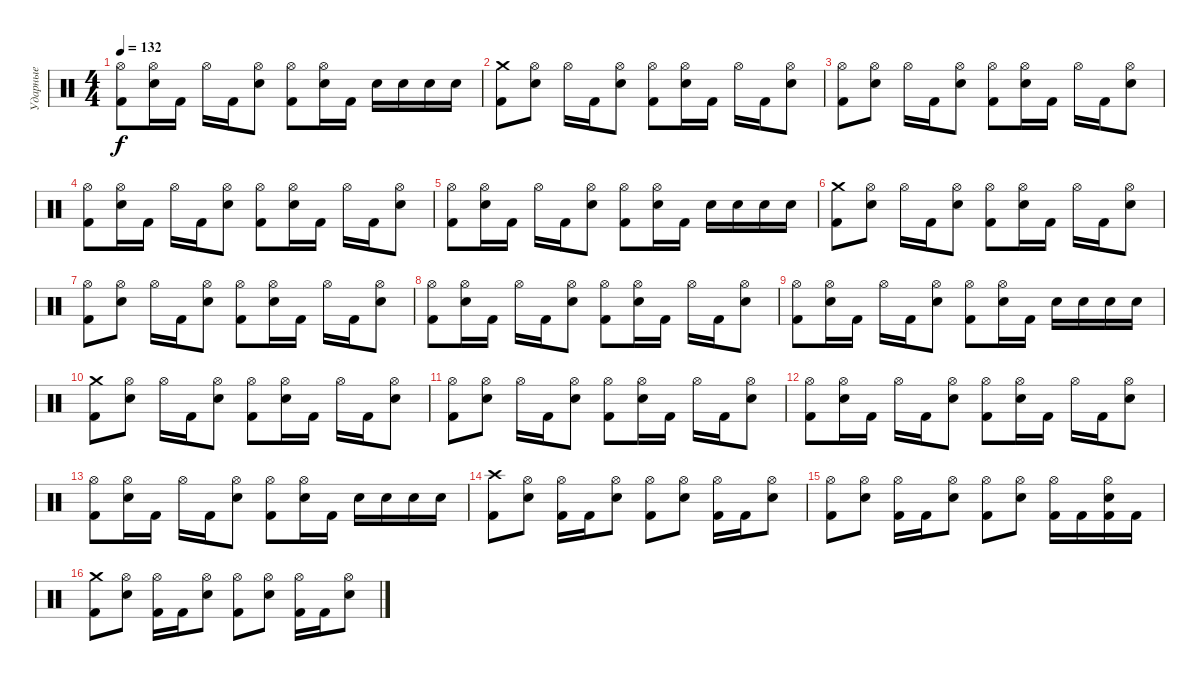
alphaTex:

\track ("Ударные" "Ударные") {instrument percussion}
\staff {score}
\articulation defaults
\ts (4 4)
\tempo 132
\clef neutral
\ks c
("Kick (hit) 2" "Hi-Hat (open)").8{dy f} ("Electric Snare (hit)" "Hi-Hat (open)").16 "Kick (hit) 2".16 "Hi-Hat (open)".16 "Kick (hit) 2".16 ("Electric Snare (hit)" "Hi-Hat (open)").8 ("Kick (hit) 2" "Hi-Hat (open)").8 ("Electric Snare (hit)" "Hi-Hat (open)").16 "Kick (hit) 2".16 "Electric Snare (hit)".16 "Electric Snare (hit)".16 "Electric Snare (hit)".16 "Electric Snare (hit)".16 |
("Kick (hit) 2" "Crash medium (hit)").8 ("Electric Snare (hit)" "Hi-Hat (open)").8 "Hi-Hat (open)".16 "Kick (hit) 2".16 ("Electric Snare (hit)" "Hi-Hat (open)").8 ("Kick (hit) 2" "Hi-Hat (open)").8 ("Electric Snare (hit)" "Hi-Hat (open)").16 "Kick (hit) 2".16 "Hi-Hat (open)".16 "Kick (hit) 2".16 ("Electric Snare (hit)" "Hi-Hat (open)").8 |
("Kick (hit) 2" "Hi-Hat (open)").8 ("Electric Snare (hit)" "Hi-Hat (open)").8 "Hi-Hat (open)".16 "Kick (hit) 2".16 ("Electric Snare (hit)" "Hi-Hat (open)").8 ("Kick (hit) 2" "Hi-Hat (open)").8 ("Electric Snare (hit)" "Hi-Hat (open)").16 "Kick (hit) 2".16 "Hi-Hat (open)".16 "Kick (hit) 2".16 ("Electric Snare (hit)" "Hi-Hat (open)").8 |
("Kick (hit) 2" "Hi-Hat (open)").8 ("Electric Snare (hit)" "Hi-Hat (open)").16 "Kick (hit) 2".16 "Hi-Hat (open)".16 "Kick (hit) 2".16 ("Electric Snare (hit)" "Hi-Hat (open)").8 ("Kick (hit) 2" "Hi-Hat (open)").8 ("Electric Snare (hit)" "Hi-Hat (open)").16 "Kick (hit) 2".16 "Hi-Hat (open)".16 "Kick (hit) 2".16 ("Electric Snare (hit)" "Hi-Hat (open)").8 |
("Kick (hit) 2" "Hi-Hat (open)").8 ("Electric Snare (hit)" "Hi-Hat (open)").16 "Kick (hit) 2".16 "Hi-Hat (open)".16 "Kick (hit) 2".16 ("Electric Snare (hit)" "Hi-Hat (open)").8 ("Kick (hit) 2" "Hi-Hat (open)").8 ("Electric Snare (hit)" "Hi-Hat (open)").16 "Kick (hit) 2".16 "Electric Snare (hit)".16 "Electric Snare (hit)".16 "Electric Snare (hit)".16 "Electric Snare (hit)".16 |
("Kick (hit) 2" "Crash medium (hit)").8 ("Electric Snare (hit)" "Hi-Hat (open)").8 "Hi-Hat (open)".16 "Kick (hit) 2".16 ("Electric Snare (hit)" "Hi-Hat (open)").8 ("Kick (hit) 2" "Hi-Hat (open)").8 ("Electric Snare (hit)" "Hi-Hat (open)").16 "Kick (hit) 2".16 "Hi-Hat (open)".16 "Kick (hit) 2".16 ("Electric Snare (hit)" "Hi-Hat (open)").8 |
("Kick (hit) 2" "Hi-Hat (open)").8 ("Electric Snare (hit)" "Hi-Hat (open)").8 "Hi-Hat (open)".16 "Kick (hit) 2".16 ("Electric Snare (hit)" "Hi-Hat (open)").8 ("Kick (hit) 2" "Hi-Hat (open)").8 ("Electric Snare (hit)" "Hi-Hat (open)").16 "Kick (hit) 2".16 "Hi-Hat (open)".16 "Kick (hit) 2".16 ("Electric Snare (hit)" "Hi-Hat (open)").8 |
("Kick (hit) 2" "Hi-Hat (open)").8 ("Electric Snare (hit)" "Hi-Hat (open)").16 "Kick (hit) 2".16 "Hi-Hat (open)".16 "Kick (hit) 2".16 ("Electric Snare (hit)" "Hi-Hat (open)").8 ("Kick (hit) 2" "Hi-Hat (open)").8 ("Electric Snare (hit)" "Hi-Hat (open)").16 "Kick (hit) 2".16 "Hi-Hat (open)".16 "Kick (hit) 2".16 ("Electric Snare (hit)" "Hi-Hat (open)").8 |
("Kick (hit) 2" "Hi-Hat (open)").8 ("Electric Snare (hit)" "Hi-Hat (open)").16 "Kick (hit) 2".16 "Hi-Hat (open)".16 "Kick (hit) 2".16 ("Electric Snare (hit)" "Hi-Hat (open)").8 ("Kick (hit) 2" "Hi-Hat (open)").8 ("Electric Snare (hit)" "Hi-Hat (open)").16 "Kick (hit) 2".16 "Electric Snare (hit)".16 "Electric Snare (hit)".16 "Electric Snare (hit)".16 "Electric Snare (hit)".16 |
("Kick (hit) 2" "Crash medium (hit)").8 ("Electric Snare (hit)" "Hi-Hat (open)").8 "Hi-Hat (open)".16 "Kick (hit) 2".16 ("Electric Snare (hit)" "Hi-Hat (open)").8 ("Kick (hit) 2" "Hi-Hat (open)").8 ("Electric Snare (hit)" "Hi-Hat (open)").16 "Kick (hit) 2".16 "Hi-Hat (open)".16 "Kick (hit) 2".16 ("Electric Snare (hit)" "Hi-Hat (open)").8 |
("Kick (hit) 2" "Hi-Hat (open)").8 ("Electric Snare (hit)" "Hi-Hat (open)").8 "Hi-Hat (open)".16 "Kick (hit) 2".16 ("Electric Snare (hit)" "Hi-Hat (open)").8 ("Kick (hit) 2" "Hi-Hat (open)").8 ("Electric Snare (hit)" "Hi-Hat (open)").16 "Kick (hit) 2".16 "Hi-Hat (open)".16 "Kick (hit) 2".16 ("Electric Snare (hit)" "Hi-Hat (open)").8 |
("Kick (hit) 2" "Hi-Hat (open)").8 ("Electric Snare (hit)" "Hi-Hat (open)").16 "Kick (hit) 2".16 "Hi-Hat (open)".16 "Kick (hit) 2".16 ("Electric Snare (hit)" "Hi-Hat (open)").8 ("Kick (hit) 2" "Hi-Hat (open)").8 ("Electric Snare (hit)" "Hi-Hat (open)").16 "Kick (hit) 2".16 "Hi-Hat (open)".16 "Kick (hit) 2".16 ("Electric Snare (hit)" "Hi-Hat (open)").8 |
("Kick (hit) 2" "Hi-Hat (open)").8 ("Electric Snare (hit)" "Hi-Hat (open)").16 "Kick (hit) 2".16 "Hi-Hat (open)".16 "Kick (hit) 2".16 ("Electric Snare (hit)" "Hi-Hat (open)").8 ("Kick (hit) 2" "Hi-Hat (open)").8 ("Electric Snare (hit)" "Hi-Hat (open)").16 "Kick (hit) 2".16 "Electric Snare (hit)".16 "Electric Snare (hit)".16 "Electric Snare (hit)".16 "Electric Snare (hit)".16 |
("Crash high (hit)" "Kick (hit) 2").8 ("Hi-Hat (open)" "Electric Snare (hit)").8 ("Hi-Hat (open)" "Kick (hit) 2").16 "Kick (hit) 2".16 ("Hi-Hat (open)" "Electric Snare (hit)").8 ("Hi-Hat (open)" "Kick (hit) 2").8 ("Hi-Hat (open)" "Electric Snare (hit)").8 ("Hi-Hat (open)" "Kick (hit) 2").16 "Kick (hit) 2".16 ("Hi-Hat (open)" "Electric Snare (hit)").8 |
("Hi-Hat (open)" "Kick (hit) 2").8 ("Hi-Hat (open)" "Electric Snare (hit)").8 ("Hi-Hat (open)" "Kick (hit) 2").16 "Kick (hit) 2".16 ("Hi-Hat (open)" "Electric Snare (hit)").8 ("Hi-Hat (open)" "Kick (hit) 2").8 ("Hi-Hat (open)" "Electric Snare (hit)").8 ("Hi-Hat (open)" "Kick (hit) 2").16 "Kick (hit) 2".16 ("Hi-Hat (open)" "Kick (hit) 2" "Electric Snare (hit)").16 "Kick (hit) 2".16 |
("Crash medium (hit)" "Kick (hit) 2").8 ("Hi-Hat (open)" "Electric Snare (hit)").8 ("Hi-Hat (open)" "Kick (hit) 2").16 "Kick (hit) 2".16 ("Hi-Hat (open)" "Electric Snare (hit)").8 ("Hi-Hat (open)" "Kick (hit) 2").8 ("Hi-Hat (open)" "Electric Snare (hit)").8 ("Hi-Hat (open)" "Kick (hit) 2").16 "Kick (hit) 2".16 ("Hi-Hat (open)" "Electric Snare (hit)").8
